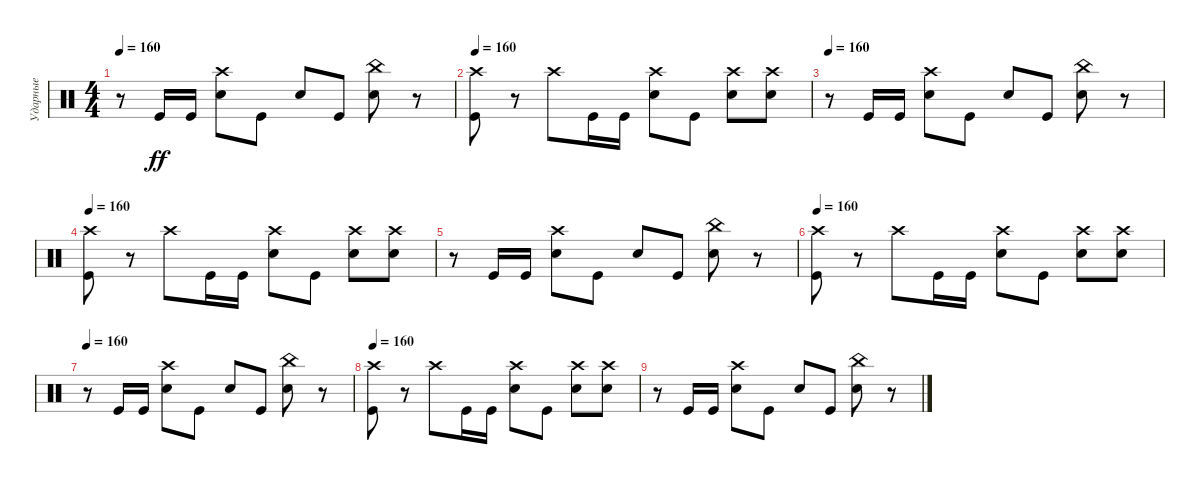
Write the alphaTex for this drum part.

\track ("Ударные" "Ударные") {instrument percussion}
\staff {score}
\articulation defaults
\ts (4 4)
\tempo 160
\clef neutral
\ks c
r.8{dy ff} "Kick (hit)".16 "Kick (hit)".16 ("Crash high (hit)" "Snare (hit) 2").8 "Kick (hit)".8 "Snare (hit) 2".8 "Kick (hit)".8 ("Snare (hit) 2" "China (hit)").8 r.8 |
\tempo 160
("Crash high (hit)" "Kick (hit)").8 r.8 "Crash high (hit)".8 "Kick (hit)".16 "Kick (hit)".16 ("Crash high (hit)" "Snare (hit) 2").8 "Kick (hit)".8 ("Crash high (hit)" "Snare (hit) 2").8 ("Crash high (hit)" "Snare (hit) 2").8 |
\tempo 160
r.8 "Kick (hit)".16 "Kick (hit)".16 ("Crash high (hit)" "Snare (hit) 2").8 "Kick (hit)".8 "Snare (hit) 2".8 "Kick (hit)".8 ("Snare (hit) 2" "China (hit)").8 r.8 |
\tempo 160
("Crash high (hit)" "Kick (hit)").8 r.8 "Crash high (hit)".8 "Kick (hit)".16 "Kick (hit)".16 ("Crash high (hit)" "Snare (hit) 2").8 "Kick (hit)".8 ("Crash high (hit)" "Snare (hit) 2").8 ("Crash high (hit)" "Snare (hit) 2").8 |
r.8 "Kick (hit)".16 "Kick (hit)".16 ("Crash high (hit)" "Snare (hit) 2").8 "Kick (hit)".8 "Snare (hit) 2".8 "Kick (hit)".8 ("Snare (hit) 2" "China (hit)").8 r.8 |
\tempo 160
("Crash high (hit)" "Kick (hit)").8 r.8 "Crash high (hit)".8 "Kick (hit)".16 "Kick (hit)".16 ("Crash high (hit)" "Snare (hit) 2").8 "Kick (hit)".8 ("Crash high (hit)" "Snare (hit) 2").8 ("Crash high (hit)" "Snare (hit) 2").8 |
\tempo 160
r.8 "Kick (hit)".16 "Kick (hit)".16 ("Crash high (hit)" "Snare (hit) 2").8 "Kick (hit)".8 "Snare (hit) 2".8 "Kick (hit)".8 ("Snare (hit) 2" "China (hit)").8 r.8 |
\tempo 160
("Crash high (hit)" "Kick (hit)").8 r.8 "Crash high (hit)".8 "Kick (hit)".16 "Kick (hit)".16 ("Crash high (hit)" "Snare (hit) 2").8 "Kick (hit)".8 ("Crash high (hit)" "Snare (hit) 2").8 ("Crash high (hit)" "Snare (hit) 2").8 |
r.8 "Kick (hit)".16 "Kick (hit)".16 ("Crash high (hit)" "Snare (hit) 2").8 "Kick (hit)".8 "Snare (hit) 2".8 "Kick (hit)".8 ("Snare (hit) 2" "China (hit)").8 r.8
